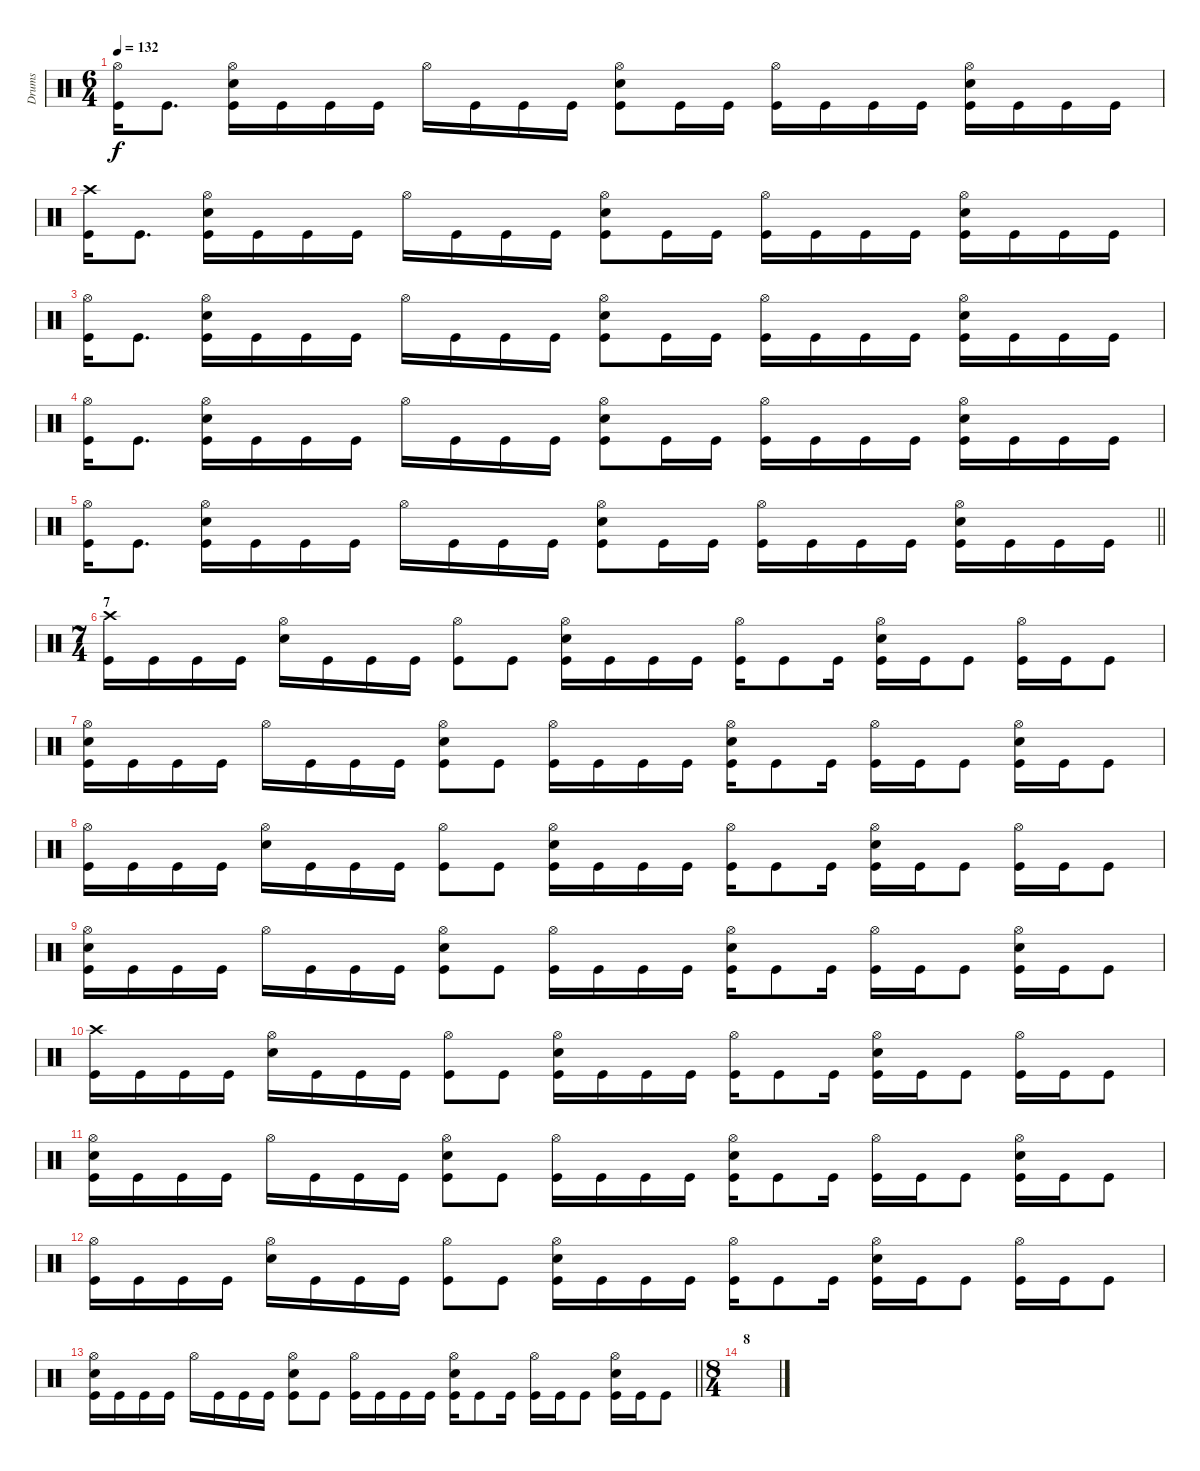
\track ("Drums" "Drums") {instrument percussion}
\staff
\articulation defaults
\ts (6 4)
\tempo 132
\clef neutral
\ks c
("Hi-Hat (open)" "Kick (hit)").16{dy f} "Kick (hit)".8{d} ("Hi-Hat (open)" "Electric Snare (hit)" "Kick (hit)").16 "Kick (hit)".16 "Kick (hit)".16 "Kick (hit)".16 "Hi-Hat (open)".16 "Kick (hit)".16 "Kick (hit)".16 "Kick (hit)".16 ("Hi-Hat (open)" "Electric Snare (hit)" "Kick (hit)").8 "Kick (hit)".16 "Kick (hit)".16 ("Hi-Hat (open)" "Kick (hit)").16 "Kick (hit)".16 "Kick (hit)".16 "Kick (hit)".16 ("Hi-Hat (open)" "Electric Snare (hit)" "Kick (hit)").16 "Kick (hit)".16 "Kick (hit)".16 "Kick (hit)".16 |
("Crash high (hit)" "Kick (hit)").16 "Kick (hit)".8{d} ("Hi-Hat (open)" "Electric Snare (hit)" "Kick (hit)").16 "Kick (hit)".16 "Kick (hit)".16 "Kick (hit)".16 "Hi-Hat (open)".16 "Kick (hit)".16 "Kick (hit)".16 "Kick (hit)".16 ("Hi-Hat (open)" "Electric Snare (hit)" "Kick (hit)").8 "Kick (hit)".16 "Kick (hit)".16 ("Hi-Hat (open)" "Kick (hit)").16 "Kick (hit)".16 "Kick (hit)".16 "Kick (hit)".16 ("Hi-Hat (open)" "Electric Snare (hit)" "Kick (hit)").16 "Kick (hit)".16 "Kick (hit)".16 "Kick (hit)".16 |
("Hi-Hat (open)" "Kick (hit)").16 "Kick (hit)".8{d} ("Hi-Hat (open)" "Electric Snare (hit)" "Kick (hit)").16 "Kick (hit)".16 "Kick (hit)".16 "Kick (hit)".16 "Hi-Hat (open)".16 "Kick (hit)".16 "Kick (hit)".16 "Kick (hit)".16 ("Hi-Hat (open)" "Electric Snare (hit)" "Kick (hit)").8 "Kick (hit)".16 "Kick (hit)".16 ("Hi-Hat (open)" "Kick (hit)").16 "Kick (hit)".16 "Kick (hit)".16 "Kick (hit)".16 ("Hi-Hat (open)" "Electric Snare (hit)" "Kick (hit)").16 "Kick (hit)".16 "Kick (hit)".16 "Kick (hit)".16 |
("Hi-Hat (open)" "Kick (hit)").16 "Kick (hit)".8{d} ("Hi-Hat (open)" "Electric Snare (hit)" "Kick (hit)").16 "Kick (hit)".16 "Kick (hit)".16 "Kick (hit)".16 "Hi-Hat (open)".16 "Kick (hit)".16 "Kick (hit)".16 "Kick (hit)".16 ("Hi-Hat (open)" "Electric Snare (hit)" "Kick (hit)").8 "Kick (hit)".16 "Kick (hit)".16 ("Hi-Hat (open)" "Kick (hit)").16 "Kick (hit)".16 "Kick (hit)".16 "Kick (hit)".16 ("Hi-Hat (open)" "Electric Snare (hit)" "Kick (hit)").16 "Kick (hit)".16 "Kick (hit)".16 "Kick (hit)".16 |
\barLineRight lightlight
("Hi-Hat (open)" "Kick (hit)").16 "Kick (hit)".8{d} ("Hi-Hat (open)" "Electric Snare (hit)" "Kick (hit)").16 "Kick (hit)".16 "Kick (hit)".16 "Kick (hit)".16 "Hi-Hat (open)".16 "Kick (hit)".16 "Kick (hit)".16 "Kick (hit)".16 ("Hi-Hat (open)" "Electric Snare (hit)" "Kick (hit)").8 "Kick (hit)".16 "Kick (hit)".16 ("Hi-Hat (open)" "Kick (hit)").16 "Kick (hit)".16 "Kick (hit)".16 "Kick (hit)".16 ("Hi-Hat (open)" "Electric Snare (hit)" "Kick (hit)").16 "Kick (hit)".16 "Kick (hit)".16 "Kick (hit)".16 |
\ts (7 4)
\section ("" "7")
("Crash high (hit)" "Kick (hit)").16 "Kick (hit)".16 "Kick (hit)".16 "Kick (hit)".16 ("Hi-Hat (open)" "Electric Snare (hit)").16 "Kick (hit)".16 "Kick (hit)".16 "Kick (hit)".16 ("Hi-Hat (open)" "Kick (hit)").8 "Kick (hit)".8 ("Hi-Hat (open)" "Electric Snare (hit)" "Kick (hit)").16 "Kick (hit)".16 "Kick (hit)".16 "Kick (hit)".16 ("Hi-Hat (open)" "Kick (hit)").16 "Kick (hit)".8 "Kick (hit)".16 ("Hi-Hat (open)" "Electric Snare (hit)" "Kick (hit)").16 "Kick (hit)".16 "Kick (hit)".8 ("Hi-Hat (open)" "Kick (hit)").16 "Kick (hit)".16 "Kick (hit)".8 |
("Hi-Hat (open)" "Electric Snare (hit)" "Kick (hit)").16 "Kick (hit)".16 "Kick (hit)".16 "Kick (hit)".16 "Hi-Hat (open)".16 "Kick (hit)".16 "Kick (hit)".16 "Kick (hit)".16 ("Hi-Hat (open)" "Electric Snare (hit)" "Kick (hit)").8 "Kick (hit)".8 ("Hi-Hat (open)" "Kick (hit)").16 "Kick (hit)".16 "Kick (hit)".16 "Kick (hit)".16 ("Hi-Hat (open)" "Electric Snare (hit)" "Kick (hit)").16 "Kick (hit)".8 "Kick (hit)".16 ("Hi-Hat (open)" "Kick (hit)").16 "Kick (hit)".16 "Kick (hit)".8 ("Hi-Hat (open)" "Electric Snare (hit)" "Kick (hit)").16 "Kick (hit)".16 "Kick (hit)".8 |
("Hi-Hat (open)" "Kick (hit)").16 "Kick (hit)".16 "Kick (hit)".16 "Kick (hit)".16 ("Hi-Hat (open)" "Electric Snare (hit)").16 "Kick (hit)".16 "Kick (hit)".16 "Kick (hit)".16 ("Hi-Hat (open)" "Kick (hit)").8 "Kick (hit)".8 ("Hi-Hat (open)" "Electric Snare (hit)" "Kick (hit)").16 "Kick (hit)".16 "Kick (hit)".16 "Kick (hit)".16 ("Hi-Hat (open)" "Kick (hit)").16 "Kick (hit)".8 "Kick (hit)".16 ("Hi-Hat (open)" "Electric Snare (hit)" "Kick (hit)").16 "Kick (hit)".16 "Kick (hit)".8 ("Hi-Hat (open)" "Kick (hit)").16 "Kick (hit)".16 "Kick (hit)".8 |
("Hi-Hat (open)" "Electric Snare (hit)" "Kick (hit)").16 "Kick (hit)".16 "Kick (hit)".16 "Kick (hit)".16 "Hi-Hat (open)".16 "Kick (hit)".16 "Kick (hit)".16 "Kick (hit)".16 ("Hi-Hat (open)" "Electric Snare (hit)" "Kick (hit)").8 "Kick (hit)".8 ("Hi-Hat (open)" "Kick (hit)").16 "Kick (hit)".16 "Kick (hit)".16 "Kick (hit)".16 ("Hi-Hat (open)" "Electric Snare (hit)" "Kick (hit)").16 "Kick (hit)".8 "Kick (hit)".16 ("Hi-Hat (open)" "Kick (hit)").16 "Kick (hit)".16 "Kick (hit)".8 ("Hi-Hat (open)" "Electric Snare (hit)" "Kick (hit)").16 "Kick (hit)".16 "Kick (hit)".8 |
("Crash high (hit)" "Kick (hit)").16 "Kick (hit)".16 "Kick (hit)".16 "Kick (hit)".16 ("Hi-Hat (open)" "Electric Snare (hit)").16 "Kick (hit)".16 "Kick (hit)".16 "Kick (hit)".16 ("Hi-Hat (open)" "Kick (hit)").8 "Kick (hit)".8 ("Hi-Hat (open)" "Electric Snare (hit)" "Kick (hit)").16 "Kick (hit)".16 "Kick (hit)".16 "Kick (hit)".16 ("Hi-Hat (open)" "Kick (hit)").16 "Kick (hit)".8 "Kick (hit)".16 ("Hi-Hat (open)" "Electric Snare (hit)" "Kick (hit)").16 "Kick (hit)".16 "Kick (hit)".8 ("Hi-Hat (open)" "Kick (hit)").16 "Kick (hit)".16 "Kick (hit)".8 |
("Hi-Hat (open)" "Electric Snare (hit)" "Kick (hit)").16 "Kick (hit)".16 "Kick (hit)".16 "Kick (hit)".16 "Hi-Hat (open)".16 "Kick (hit)".16 "Kick (hit)".16 "Kick (hit)".16 ("Hi-Hat (open)" "Electric Snare (hit)" "Kick (hit)").8 "Kick (hit)".8 ("Hi-Hat (open)" "Kick (hit)").16 "Kick (hit)".16 "Kick (hit)".16 "Kick (hit)".16 ("Hi-Hat (open)" "Electric Snare (hit)" "Kick (hit)").16 "Kick (hit)".8 "Kick (hit)".16 ("Hi-Hat (open)" "Kick (hit)").16 "Kick (hit)".16 "Kick (hit)".8 ("Hi-Hat (open)" "Electric Snare (hit)" "Kick (hit)").16 "Kick (hit)".16 "Kick (hit)".8 |
("Hi-Hat (open)" "Kick (hit)").16 "Kick (hit)".16 "Kick (hit)".16 "Kick (hit)".16 ("Hi-Hat (open)" "Electric Snare (hit)").16 "Kick (hit)".16 "Kick (hit)".16 "Kick (hit)".16 ("Hi-Hat (open)" "Kick (hit)").8 "Kick (hit)".8 ("Hi-Hat (open)" "Electric Snare (hit)" "Kick (hit)").16 "Kick (hit)".16 "Kick (hit)".16 "Kick (hit)".16 ("Hi-Hat (open)" "Kick (hit)").16 "Kick (hit)".8 "Kick (hit)".16 ("Hi-Hat (open)" "Electric Snare (hit)" "Kick (hit)").16 "Kick (hit)".16 "Kick (hit)".8 ("Hi-Hat (open)" "Kick (hit)").16 "Kick (hit)".16 "Kick (hit)".8 |
\barLineRight lightlight
("Hi-Hat (open)" "Electric Snare (hit)" "Kick (hit)").16 "Kick (hit)".16 "Kick (hit)".16 "Kick (hit)".16 "Hi-Hat (open)".16 "Kick (hit)".16 "Kick (hit)".16 "Kick (hit)".16 ("Hi-Hat (open)" "Electric Snare (hit)" "Kick (hit)").8 "Kick (hit)".8 ("Hi-Hat (open)" "Kick (hit)").16 "Kick (hit)".16 "Kick (hit)".16 "Kick (hit)".16 ("Hi-Hat (open)" "Electric Snare (hit)" "Kick (hit)").16 "Kick (hit)".8 "Kick (hit)".16 ("Hi-Hat (open)" "Kick (hit)").16 "Kick (hit)".16 "Kick (hit)".8 ("Hi-Hat (open)" "Electric Snare (hit)" "Kick (hit)").16 "Kick (hit)".16 "Kick (hit)".8 |
\ts (8 4)
\section ("" "8")
